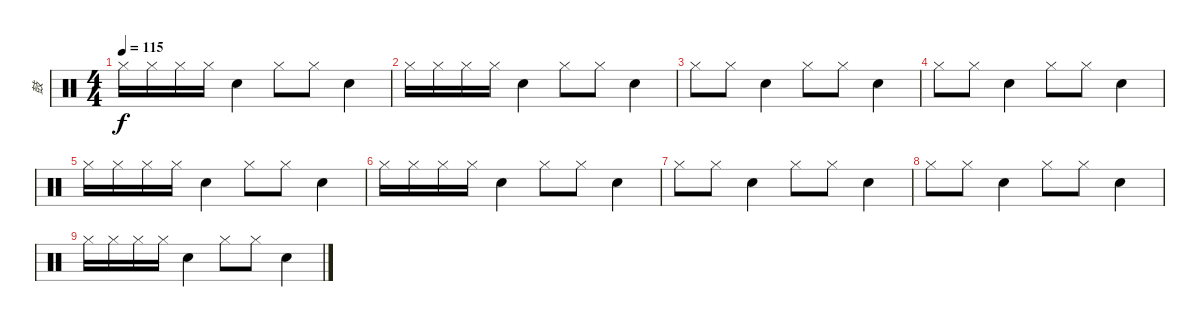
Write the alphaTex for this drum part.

\track ("鼓" "鼓") {instrument percussion}
\staff {score}
\articulation defaults
\ts (4 4)
\tempo 115
\clef neutral
\ks c "Hi-Hat (closed)".16{dy f} "Hi-Hat (closed)".16 "Hi-Hat (closed)".16 "Hi-Hat (closed)".16 "Snare (hit) 2".4 "Hi-Hat (closed)".8 "Hi-Hat (closed)".8 "Snare (hit) 2".4
|
"Hi-Hat (closed)".16 "Hi-Hat (closed)".16 "Hi-Hat (closed)".16 "Hi-Hat (closed)".16 "Snare (hit) 2".4 "Hi-Hat (closed)".8 "Hi-Hat (closed)".8 "Snare (hit) 2".4 |
"Hi-Hat (closed)".8 "Hi-Hat (closed)".8 "Snare (hit) 2".4 "Hi-Hat (closed)".8 "Hi-Hat (closed)".8 "Snare (hit) 2".4 |
"Hi-Hat (closed)".8 "Hi-Hat (closed)".8 "Snare (hit) 2".4 "Hi-Hat (closed)".8 "Hi-Hat (closed)".8 "Snare (hit) 2".4 |
"Hi-Hat (closed)".16 "Hi-Hat (closed)".16 "Hi-Hat (closed)".16 "Hi-Hat (closed)".16 "Snare (hit) 2".4 "Hi-Hat (closed)".8 "Hi-Hat (closed)".8 "Snare (hit) 2".4 |
"Hi-Hat (closed)".16 "Hi-Hat (closed)".16 "Hi-Hat (closed)".16 "Hi-Hat (closed)".16 "Snare (hit) 2".4 "Hi-Hat (closed)".8 "Hi-Hat (closed)".8 "Snare (hit) 2".4 |
"Hi-Hat (closed)".8 "Hi-Hat (closed)".8 "Snare (hit) 2".4 "Hi-Hat (closed)".8 "Hi-Hat (closed)".8 "Snare (hit) 2".4 |
"Hi-Hat (closed)".8 "Hi-Hat (closed)".8 "Snare (hit) 2".4 "Hi-Hat (closed)".8 "Hi-Hat (closed)".8 "Snare (hit) 2".4 |
"Hi-Hat (closed)".16 "Hi-Hat (closed)".16 "Hi-Hat (closed)".16 "Hi-Hat (closed)".16 "Snare (hit) 2".4 "Hi-Hat (closed)".8 "Hi-Hat (closed)".8 "Snare (hit) 2".4
